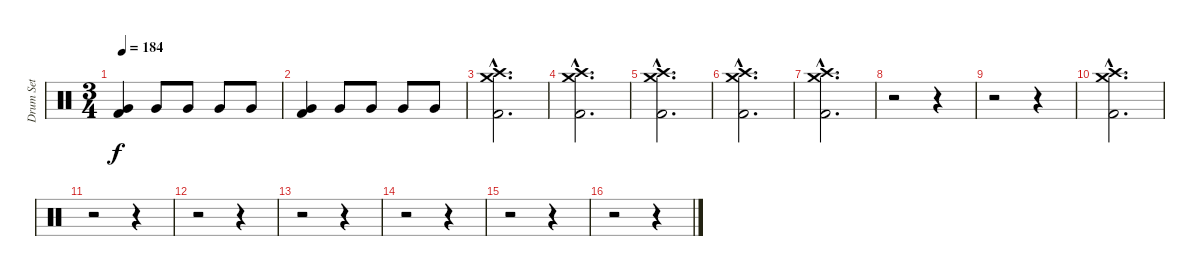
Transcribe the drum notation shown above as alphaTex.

\track ("Drum Set" "Drum Set") {instrument percussion}
\staff {score}
\articulation defaults
\ts (3 4)
\tempo 184
\clef neutral
\ks c
("Very Low Tom (hit)" "Kick (hit) 2").4{dy f} "Very Low Tom (hit)".8 "Very Low Tom (hit)".8 "Very Low Tom (hit)".8 "Very Low Tom (hit)".8 |
("Very Low Tom (hit)" "Kick (hit) 2").4 "Very Low Tom (hit)".8 "Very Low Tom (hit)".8 "Very Low Tom (hit)".8 "Very Low Tom (hit)".8 |
("Crash high (hit)"{hac} "Crash medium (hit)"{hac} "Kick (hit) 2"{hac}).2{d} |
("Crash high (hit)"{hac} "Crash medium (hit)"{hac} "Kick (hit) 2"{hac}).2{d} |
("Crash high (hit)"{hac} "Crash medium (hit)"{hac} "Kick (hit) 2"{hac}).2{d} |
("Crash high (hit)"{hac} "Crash medium (hit)"{hac} "Kick (hit) 2"{hac}).2{d} |
("Crash high (hit)"{hac} "Crash medium (hit)"{hac} "Kick (hit) 2"{hac}).2{d} |
r.2 r.4 |
r.2 r.4 |
("Crash high (hit)"{hac} "Crash medium (hit)"{hac} "Kick (hit) 2"{hac}).2{d} |
r.2 r.4 |
r.2 r.4 |
r.2 r.4 |
r.2 r.4 |
r.2 r.4 |
r.2 r.4
